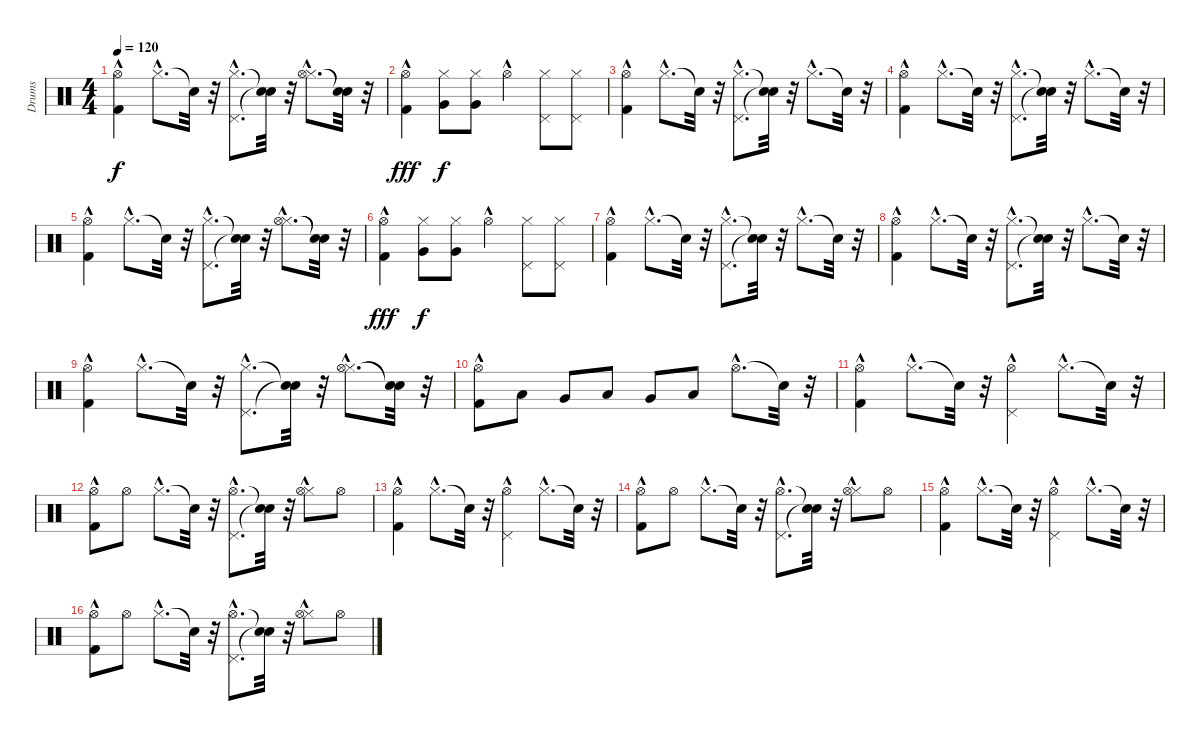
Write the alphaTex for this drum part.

\track ("Drums" "Drums") {instrument percussion}
\staff {score}
\articulation defaults
\ts (4 4)
\tempo 120
\clef neutral
\ks c
("Kick (hit) 2"{hac} "Hi-Hat (open)").4{dy f} "Hi-Hat (closed)"{hac}.8{d} "Snare (hit)"{t}.32 r.32 ("Hi-Hat (closed)"{hac} "Pedal Hi-Hat (hit)"{hac}).8{d} ("Snare (hit)"{t} "Snare (hit)"{t}).32 r.32 ("Hi-Hat (closed)"{hac} "Hi-Hat (open)"{hac}).8{d} ("Snare (hit)"{t} "Snare (hit)"{t}).32 r.32 |
("Kick (hit) 2"{hac} "Hi-Hat (open)").4{dy fff} ("Hi-Hat (closed)" "Very Low Tom (hit)").8{dy f} ("Hi-Hat (closed)" "Very Low Tom (hit)").8 "Hi-Hat (open)"{hac}.4 ("Hi-Hat (closed)" "Pedal Hi-Hat (hit)").8 ("Hi-Hat (closed)" "Pedal Hi-Hat (hit)").8 |
("Kick (hit) 2"{hac} "Hi-Hat (open)"{hac}).4 "Hi-Hat (closed)"{hac}.8{d} "Snare (hit)"{t}.32 r.32 ("Hi-Hat (closed)"{hac} "Pedal Hi-Hat (hit)"{hac}).8{d} ("Snare (hit)"{t} "Snare (hit)"{t}).32 r.32 "Hi-Hat (closed)"{hac}.8{d} "Snare (hit)"{t}.32 r.32 |
("Kick (hit) 2"{hac} "Hi-Hat (open)"{hac}).4 "Hi-Hat (closed)"{hac}.8{d} "Snare (hit)"{t}.32 r.32 ("Hi-Hat (closed)"{hac} "Pedal Hi-Hat (hit)"{hac}).8{d} ("Snare (hit)"{t} "Snare (hit)"{t}).32 r.32 "Hi-Hat (closed)"{hac}.8{d} "Snare (hit)"{t}.32 r.32 |
("Kick (hit) 2"{hac} "Hi-Hat (open)").4 "Hi-Hat (closed)"{hac}.8{d} "Snare (hit)"{t}.32 r.32 ("Hi-Hat (closed)"{hac} "Pedal Hi-Hat (hit)"{hac}).8{d} ("Snare (hit)"{t} "Snare (hit)"{t}).32 r.32 ("Hi-Hat (closed)"{hac} "Hi-Hat (open)"{hac}).8{d} ("Snare (hit)"{t} "Snare (hit)"{t}).32 r.32 |
("Kick (hit) 2"{hac} "Hi-Hat (open)").4{dy fff} ("Hi-Hat (closed)" "Very Low Tom (hit)").8{dy f} ("Hi-Hat (closed)" "Very Low Tom (hit)").8 "Hi-Hat (open)"{hac}.4 ("Hi-Hat (closed)" "Pedal Hi-Hat (hit)").8 ("Hi-Hat (closed)" "Pedal Hi-Hat (hit)").8 |
("Kick (hit) 2"{hac} "Hi-Hat (open)"{hac}).4 "Hi-Hat (closed)"{hac}.8{d} "Snare (hit)"{t}.32 r.32 ("Hi-Hat (closed)"{hac} "Pedal Hi-Hat (hit)"{hac}).8{d} ("Snare (hit)"{t} "Snare (hit)"{t}).32 r.32 "Hi-Hat (closed)"{hac}.8{d} "Snare (hit)"{t}.32 r.32 |
("Kick (hit) 2"{hac} "Hi-Hat (open)"{hac}).4 "Hi-Hat (closed)"{hac}.8{d} "Snare (hit)"{t}.32 r.32 ("Hi-Hat (closed)"{hac} "Pedal Hi-Hat (hit)"{hac}).8{d} ("Snare (hit)"{t} "Snare (hit)"{t}).32 r.32 "Hi-Hat (closed)"{hac}.8{d} "Snare (hit)"{t}.32 r.32 |
("Kick (hit) 2"{hac} "Hi-Hat (open)").4 "Hi-Hat (closed)"{hac}.8{d} "Snare (hit)"{t}.32 r.32 ("Hi-Hat (closed)"{hac} "Pedal Hi-Hat (hit)"{hac}).8{d} ("Snare (hit)"{t} "Snare (hit)"{t}).32 r.32 ("Hi-Hat (closed)"{hac} "Hi-Hat (open)"{hac}).8{d} ("Snare (hit)"{t} "Snare (hit)"{t}).32 r.32 |
("Kick (hit) 2"{hac} "Hi-Hat (open)").8 "Low Floor Tom (hit)".8 "Very Low Tom (hit)".8 "Low Floor Tom (hit)".8 "Very Low Tom (hit)".8 "Low Floor Tom (hit)".8 "Hi-Hat (open)"{hac}.8{d} "Snare (hit)"{t}.32 r.32 |
("Kick (hit) 2"{hac} "Hi-Hat (open)").4 "Hi-Hat (closed)"{hac}.8{d} "Snare (hit)"{t}.32 r.32 ("Pedal Hi-Hat (hit)"{hac} "Hi-Hat (open)"{hac}).4 "Hi-Hat (closed)"{hac}.8{d} "Snare (hit)"{t}.32 r.32 |
("Kick (hit) 2"{hac} "Hi-Hat (open)").8 "Hi-Hat (open)".8 "Hi-Hat (closed)"{hac}.8{d} "Snare (hit)"{t}.32 r.32 ("Pedal Hi-Hat (hit)"{hac} "Hi-Hat (open)"{hac}).8{d} ("Snare (hit)"{t} "Snare (hit)"{t}).32 r.32 ("Hi-Hat (closed)"{hac} "Hi-Hat (open)").8 "Hi-Hat (open)".8 |
("Kick (hit) 2"{hac} "Hi-Hat (open)").4 "Hi-Hat (closed)"{hac}.8{d} "Snare (hit)"{t}.32 r.32 ("Pedal Hi-Hat (hit)"{hac} "Hi-Hat (open)"{hac}).4 "Hi-Hat (closed)"{hac}.8{d} "Snare (hit)"{t}.32 r.32 |
("Kick (hit) 2"{hac} "Hi-Hat (open)").8 "Hi-Hat (open)".8 "Hi-Hat (closed)"{hac}.8{d} "Snare (hit)"{t}.32 r.32 ("Pedal Hi-Hat (hit)"{hac} "Hi-Hat (open)"{hac}).8{d} ("Snare (hit)"{t} "Snare (hit)"{t}).32 r.32 ("Hi-Hat (closed)"{hac} "Hi-Hat (open)").8 "Hi-Hat (open)".8 |
("Kick (hit) 2"{hac} "Hi-Hat (open)").4 "Hi-Hat (closed)"{hac}.8{d} "Snare (hit)"{t}.32 r.32 ("Pedal Hi-Hat (hit)"{hac} "Hi-Hat (open)"{hac}).4 "Hi-Hat (closed)"{hac}.8{d} "Snare (hit)"{t}.32 r.32 |
("Kick (hit) 2"{hac} "Hi-Hat (open)").8 "Hi-Hat (open)".8 "Hi-Hat (closed)"{hac}.8{d} "Snare (hit)"{t}.32 r.32 ("Pedal Hi-Hat (hit)"{hac} "Hi-Hat (open)"{hac}).8{d} ("Snare (hit)"{t} "Snare (hit)"{t}).32 r.32 ("Hi-Hat (closed)"{hac} "Hi-Hat (open)").8 "Hi-Hat (open)".8
